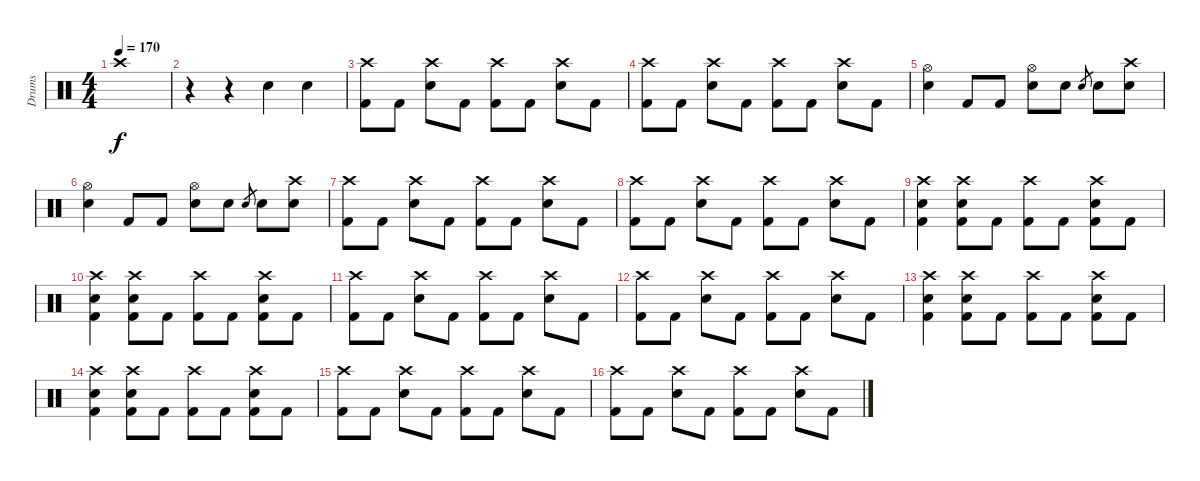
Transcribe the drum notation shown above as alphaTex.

\track ("Drums" "Drums") {instrument percussion}
\staff {score}
\articulation defaults
\ts (4 4)
\tempo 170
\clef neutral
\ks c "Crash high (hit)".1{dy f}
|
r.4 r.4 "Snare (hit) 2".4 "Snare (hit) 2".4 |
("Crash high (hit)" "Kick (hit) 2").8 "Kick (hit) 2".8 ("Crash high (hit)" "Snare (hit) 2").8 "Kick (hit) 2".8 ("Crash high (hit)" "Kick (hit) 2").8 "Kick (hit) 2".8 ("Crash high (hit)" "Snare (hit) 2").8 "Kick (hit) 2".8 |
("Crash high (hit)" "Kick (hit) 2").8 "Kick (hit) 2".8 ("Crash high (hit)" "Snare (hit) 2").8 "Kick (hit) 2".8 ("Crash high (hit)" "Kick (hit) 2").8 "Kick (hit) 2".8 ("Crash high (hit)" "Snare (hit) 2").8 "Kick (hit) 2".8 |
("Hi-Hat (open)" "Snare (hit) 2").4 "Kick (hit) 2".8 "Kick (hit) 2".8 ("Hi-Hat (open)" "Snare (hit) 2").8 "Snare (hit) 2".8 "Snare (hit) 2".8{gr} "Snare (hit) 2".8 ("Crash high (hit)" "Snare (hit) 2").8 |
("Hi-Hat (open)" "Snare (hit) 2").4 "Kick (hit) 2".8 "Kick (hit) 2".8 ("Hi-Hat (open)" "Snare (hit) 2").8 "Snare (hit) 2".8 "Snare (hit) 2".8{gr} "Snare (hit) 2".8 ("Crash high (hit)" "Snare (hit) 2").8 |
("Crash high (hit)" "Kick (hit) 2").8 "Kick (hit) 2".8 ("Crash high (hit)" "Snare (hit) 2").8 "Kick (hit) 2".8 ("Crash high (hit)" "Kick (hit) 2").8 "Kick (hit) 2".8 ("Crash high (hit)" "Snare (hit) 2").8 "Kick (hit) 2".8 |
("Crash high (hit)" "Kick (hit) 2").8 "Kick (hit) 2".8 ("Crash high (hit)" "Snare (hit) 2").8 "Kick (hit) 2".8 ("Crash high (hit)" "Kick (hit) 2").8 "Kick (hit) 2".8 ("Crash high (hit)" "Snare (hit) 2").8 "Kick (hit) 2".8 |
("Crash high (hit)" "Snare (hit) 2" "Kick (hit) 2").4 ("Crash high (hit)" "Snare (hit) 2" "Kick (hit) 2").8 "Kick (hit) 2".8 ("Crash high (hit)" "Kick (hit) 2").8 "Kick (hit) 2".8 ("Crash high (hit)" "Snare (hit) 2" "Kick (hit) 2").8 "Kick (hit) 2".8 |
("Crash high (hit)" "Snare (hit) 2" "Kick (hit) 2").4 ("Crash high (hit)" "Snare (hit) 2" "Kick (hit) 2").8 "Kick (hit) 2".8 ("Crash high (hit)" "Kick (hit) 2").8 "Kick (hit) 2".8 ("Crash high (hit)" "Snare (hit) 2" "Kick (hit) 2").8 "Kick (hit) 2".8 |
("Crash high (hit)" "Kick (hit) 2").8 "Kick (hit) 2".8 ("Crash high (hit)" "Snare (hit) 2").8 "Kick (hit) 2".8 ("Crash high (hit)" "Kick (hit) 2").8 "Kick (hit) 2".8 ("Crash high (hit)" "Snare (hit) 2").8 "Kick (hit) 2".8 |
("Crash high (hit)" "Kick (hit) 2").8 "Kick (hit) 2".8 ("Crash high (hit)" "Snare (hit) 2").8 "Kick (hit) 2".8 ("Crash high (hit)" "Kick (hit) 2").8 "Kick (hit) 2".8 ("Crash high (hit)" "Snare (hit) 2").8 "Kick (hit) 2".8 |
("Crash high (hit)" "Snare (hit) 2" "Kick (hit) 2").4 ("Crash high (hit)" "Snare (hit) 2" "Kick (hit) 2").8 "Kick (hit) 2".8 ("Crash high (hit)" "Kick (hit) 2").8 "Kick (hit) 2".8 ("Crash high (hit)" "Snare (hit) 2" "Kick (hit) 2").8 "Kick (hit) 2".8 |
("Crash high (hit)" "Snare (hit) 2" "Kick (hit) 2").4 ("Crash high (hit)" "Snare (hit) 2" "Kick (hit) 2").8 "Kick (hit) 2".8 ("Crash high (hit)" "Kick (hit) 2").8 "Kick (hit) 2".8 ("Crash high (hit)" "Snare (hit) 2" "Kick (hit) 2").8 "Kick (hit) 2".8 |
("Crash high (hit)" "Kick (hit) 2").8 "Kick (hit) 2".8 ("Crash high (hit)" "Snare (hit) 2").8 "Kick (hit) 2".8 ("Crash high (hit)" "Kick (hit) 2").8 "Kick (hit) 2".8 ("Crash high (hit)" "Snare (hit) 2").8 "Kick (hit) 2".8 |
("Crash high (hit)" "Kick (hit) 2").8 "Kick (hit) 2".8 ("Crash high (hit)" "Snare (hit) 2").8 "Kick (hit) 2".8 ("Crash high (hit)" "Kick (hit) 2").8 "Kick (hit) 2".8 ("Crash high (hit)" "Snare (hit) 2").8 "Kick (hit) 2".8
